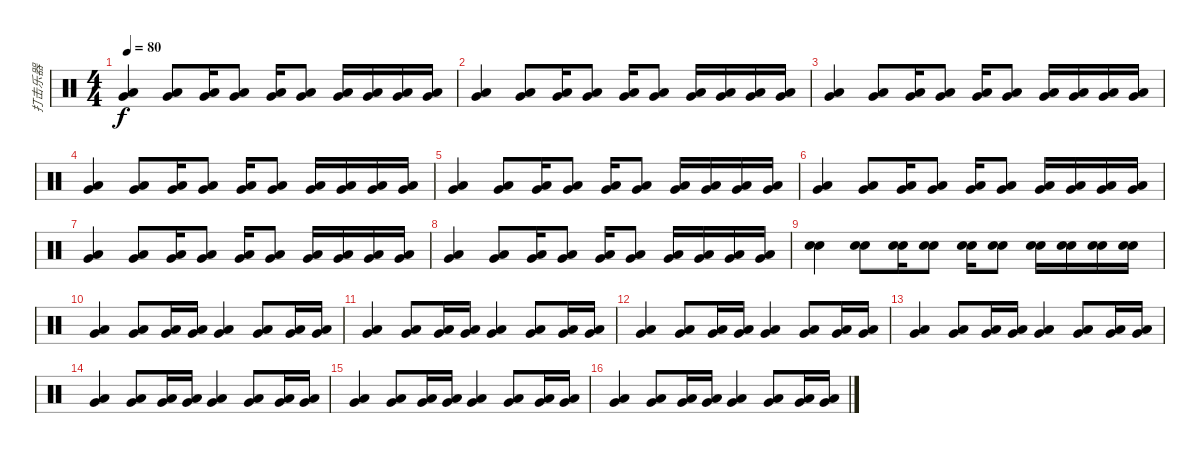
\track ("打击乐器" "打击乐器") {instrument percussion}
\staff {score}
\articulation defaults
\ts (4 4)
\tempo 80
\clef neutral
\ks c
("Very Low Tom (hit)" "Low Floor Tom (hit)").4{dy f} ("Very Low Tom (hit)" "Low Floor Tom (hit)").8 ("Very Low Tom (hit)" "Low Floor Tom (hit)").16 ("Very Low Tom (hit)" "Low Floor Tom (hit)").8 ("Very Low Tom (hit)" "Low Floor Tom (hit)").16 ("Very Low Tom (hit)" "Low Floor Tom (hit)").8 ("Very Low Tom (hit)" "Low Floor Tom (hit)").16 ("Very Low Tom (hit)" "Low Floor Tom (hit)").16 ("Very Low Tom (hit)" "Low Floor Tom (hit)").16 ("Very Low Tom (hit)" "Low Floor Tom (hit)").16 |
("Very Low Tom (hit)" "Low Floor Tom (hit)").4 ("Very Low Tom (hit)" "Low Floor Tom (hit)").8 ("Very Low Tom (hit)" "Low Floor Tom (hit)").16 ("Very Low Tom (hit)" "Low Floor Tom (hit)").8 ("Very Low Tom (hit)" "Low Floor Tom (hit)").16 ("Very Low Tom (hit)" "Low Floor Tom (hit)").8 ("Very Low Tom (hit)" "Low Floor Tom (hit)").16 ("Very Low Tom (hit)" "Low Floor Tom (hit)").16 ("Very Low Tom (hit)" "Low Floor Tom (hit)").16 ("Very Low Tom (hit)" "Low Floor Tom (hit)").16 |
("Very Low Tom (hit)" "Low Floor Tom (hit)").4 ("Very Low Tom (hit)" "Low Floor Tom (hit)").8 ("Very Low Tom (hit)" "Low Floor Tom (hit)").16 ("Very Low Tom (hit)" "Low Floor Tom (hit)").8 ("Very Low Tom (hit)" "Low Floor Tom (hit)").16 ("Very Low Tom (hit)" "Low Floor Tom (hit)").8 ("Very Low Tom (hit)" "Low Floor Tom (hit)").16 ("Very Low Tom (hit)" "Low Floor Tom (hit)").16 ("Very Low Tom (hit)" "Low Floor Tom (hit)").16 ("Very Low Tom (hit)" "Low Floor Tom (hit)").16 |
("Very Low Tom (hit)" "Low Floor Tom (hit)").4 ("Very Low Tom (hit)" "Low Floor Tom (hit)").8 ("Very Low Tom (hit)" "Low Floor Tom (hit)").16 ("Very Low Tom (hit)" "Low Floor Tom (hit)").8 ("Very Low Tom (hit)" "Low Floor Tom (hit)").16 ("Very Low Tom (hit)" "Low Floor Tom (hit)").8 ("Very Low Tom (hit)" "Low Floor Tom (hit)").16 ("Very Low Tom (hit)" "Low Floor Tom (hit)").16 ("Very Low Tom (hit)" "Low Floor Tom (hit)").16 ("Very Low Tom (hit)" "Low Floor Tom (hit)").16 |
("Very Low Tom (hit)" "Low Floor Tom (hit)").4 ("Very Low Tom (hit)" "Low Floor Tom (hit)").8 ("Very Low Tom (hit)" "Low Floor Tom (hit)").16 ("Very Low Tom (hit)" "Low Floor Tom (hit)").8 ("Very Low Tom (hit)" "Low Floor Tom (hit)").16 ("Very Low Tom (hit)" "Low Floor Tom (hit)").8 ("Very Low Tom (hit)" "Low Floor Tom (hit)").16 ("Very Low Tom (hit)" "Low Floor Tom (hit)").16 ("Very Low Tom (hit)" "Low Floor Tom (hit)").16 ("Very Low Tom (hit)" "Low Floor Tom (hit)").16 |
("Very Low Tom (hit)" "Low Floor Tom (hit)").4 ("Very Low Tom (hit)" "Low Floor Tom (hit)").8 ("Very Low Tom (hit)" "Low Floor Tom (hit)").16 ("Very Low Tom (hit)" "Low Floor Tom (hit)").8 ("Very Low Tom (hit)" "Low Floor Tom (hit)").16 ("Very Low Tom (hit)" "Low Floor Tom (hit)").8 ("Very Low Tom (hit)" "Low Floor Tom (hit)").16 ("Very Low Tom (hit)" "Low Floor Tom (hit)").16 ("Very Low Tom (hit)" "Low Floor Tom (hit)").16 ("Very Low Tom (hit)" "Low Floor Tom (hit)").16 |
("Very Low Tom (hit)" "Low Floor Tom (hit)").4 ("Very Low Tom (hit)" "Low Floor Tom (hit)").8 ("Very Low Tom (hit)" "Low Floor Tom (hit)").16 ("Very Low Tom (hit)" "Low Floor Tom (hit)").8 ("Very Low Tom (hit)" "Low Floor Tom (hit)").16 ("Very Low Tom (hit)" "Low Floor Tom (hit)").8 ("Very Low Tom (hit)" "Low Floor Tom (hit)").16 ("Very Low Tom (hit)" "Low Floor Tom (hit)").16 ("Very Low Tom (hit)" "Low Floor Tom (hit)").16 ("Very Low Tom (hit)" "Low Floor Tom (hit)").16 |
("Very Low Tom (hit)" "Low Floor Tom (hit)").4 ("Very Low Tom (hit)" "Low Floor Tom (hit)").8 ("Very Low Tom (hit)" "Low Floor Tom (hit)").16 ("Very Low Tom (hit)" "Low Floor Tom (hit)").8 ("Very Low Tom (hit)" "Low Floor Tom (hit)").16 ("Very Low Tom (hit)" "Low Floor Tom (hit)").8 ("Very Low Tom (hit)" "Low Floor Tom (hit)").16 ("Very Low Tom (hit)" "Low Floor Tom (hit)").16 ("Very Low Tom (hit)" "Low Floor Tom (hit)").16 ("Very Low Tom (hit)" "Low Floor Tom (hit)").16 |
("Electric Snare (hit)" "Electric Snare (hit)").4 ("Electric Snare (hit)" "Electric Snare (hit)").8 ("Electric Snare (hit)" "Electric Snare (hit)").16 ("Electric Snare (hit)" "Electric Snare (hit)").8 ("Electric Snare (hit)" "Electric Snare (hit)").16 ("Electric Snare (hit)" "Electric Snare (hit)").8 ("Electric Snare (hit)" "Electric Snare (hit)").16 ("Electric Snare (hit)" "Electric Snare (hit)").16 ("Electric Snare (hit)" "Electric Snare (hit)").16 ("Electric Snare (hit)" "Electric Snare (hit)").16 |
("Very Low Tom (hit)" "Low Floor Tom (hit)").4 ("Very Low Tom (hit)" "Low Floor Tom (hit)").8 ("Very Low Tom (hit)" "Low Floor Tom (hit)").16 ("Very Low Tom (hit)" "Low Floor Tom (hit)").16 ("Very Low Tom (hit)" "Low Floor Tom (hit)").4 ("Very Low Tom (hit)" "Low Floor Tom (hit)").8 ("Very Low Tom (hit)" "Low Floor Tom (hit)").16 ("Very Low Tom (hit)" "Low Floor Tom (hit)").16 |
("Very Low Tom (hit)" "Low Floor Tom (hit)").4 ("Very Low Tom (hit)" "Low Floor Tom (hit)").8 ("Very Low Tom (hit)" "Low Floor Tom (hit)").16 ("Very Low Tom (hit)" "Low Floor Tom (hit)").16 ("Very Low Tom (hit)" "Low Floor Tom (hit)").4 ("Very Low Tom (hit)" "Low Floor Tom (hit)").8 ("Very Low Tom (hit)" "Low Floor Tom (hit)").16 ("Very Low Tom (hit)" "Low Floor Tom (hit)").16 |
("Very Low Tom (hit)" "Low Floor Tom (hit)").4 ("Very Low Tom (hit)" "Low Floor Tom (hit)").8 ("Very Low Tom (hit)" "Low Floor Tom (hit)").16 ("Very Low Tom (hit)" "Low Floor Tom (hit)").16 ("Very Low Tom (hit)" "Low Floor Tom (hit)").4 ("Very Low Tom (hit)" "Low Floor Tom (hit)").8 ("Very Low Tom (hit)" "Low Floor Tom (hit)").16 ("Very Low Tom (hit)" "Low Floor Tom (hit)").16 |
("Very Low Tom (hit)" "Low Floor Tom (hit)").4 ("Very Low Tom (hit)" "Low Floor Tom (hit)").8 ("Very Low Tom (hit)" "Low Floor Tom (hit)").16 ("Very Low Tom (hit)" "Low Floor Tom (hit)").16 ("Very Low Tom (hit)" "Low Floor Tom (hit)").4 ("Very Low Tom (hit)" "Low Floor Tom (hit)").8 ("Very Low Tom (hit)" "Low Floor Tom (hit)").16 ("Very Low Tom (hit)" "Low Floor Tom (hit)").16 |
("Very Low Tom (hit)" "Low Floor Tom (hit)").4 ("Very Low Tom (hit)" "Low Floor Tom (hit)").8 ("Very Low Tom (hit)" "Low Floor Tom (hit)").16 ("Very Low Tom (hit)" "Low Floor Tom (hit)").16 ("Very Low Tom (hit)" "Low Floor Tom (hit)").4 ("Very Low Tom (hit)" "Low Floor Tom (hit)").8 ("Very Low Tom (hit)" "Low Floor Tom (hit)").16 ("Very Low Tom (hit)" "Low Floor Tom (hit)").16 |
("Very Low Tom (hit)" "Low Floor Tom (hit)").4 ("Very Low Tom (hit)" "Low Floor Tom (hit)").8 ("Very Low Tom (hit)" "Low Floor Tom (hit)").16 ("Very Low Tom (hit)" "Low Floor Tom (hit)").16 ("Very Low Tom (hit)" "Low Floor Tom (hit)").4 ("Very Low Tom (hit)" "Low Floor Tom (hit)").8 ("Very Low Tom (hit)" "Low Floor Tom (hit)").16 ("Very Low Tom (hit)" "Low Floor Tom (hit)").16 |
("Very Low Tom (hit)" "Low Floor Tom (hit)").4 ("Very Low Tom (hit)" "Low Floor Tom (hit)").8 ("Very Low Tom (hit)" "Low Floor Tom (hit)").16 ("Very Low Tom (hit)" "Low Floor Tom (hit)").16 ("Very Low Tom (hit)" "Low Floor Tom (hit)").4 ("Very Low Tom (hit)" "Low Floor Tom (hit)").8 ("Very Low Tom (hit)" "Low Floor Tom (hit)").16 ("Very Low Tom (hit)" "Low Floor Tom (hit)").16
